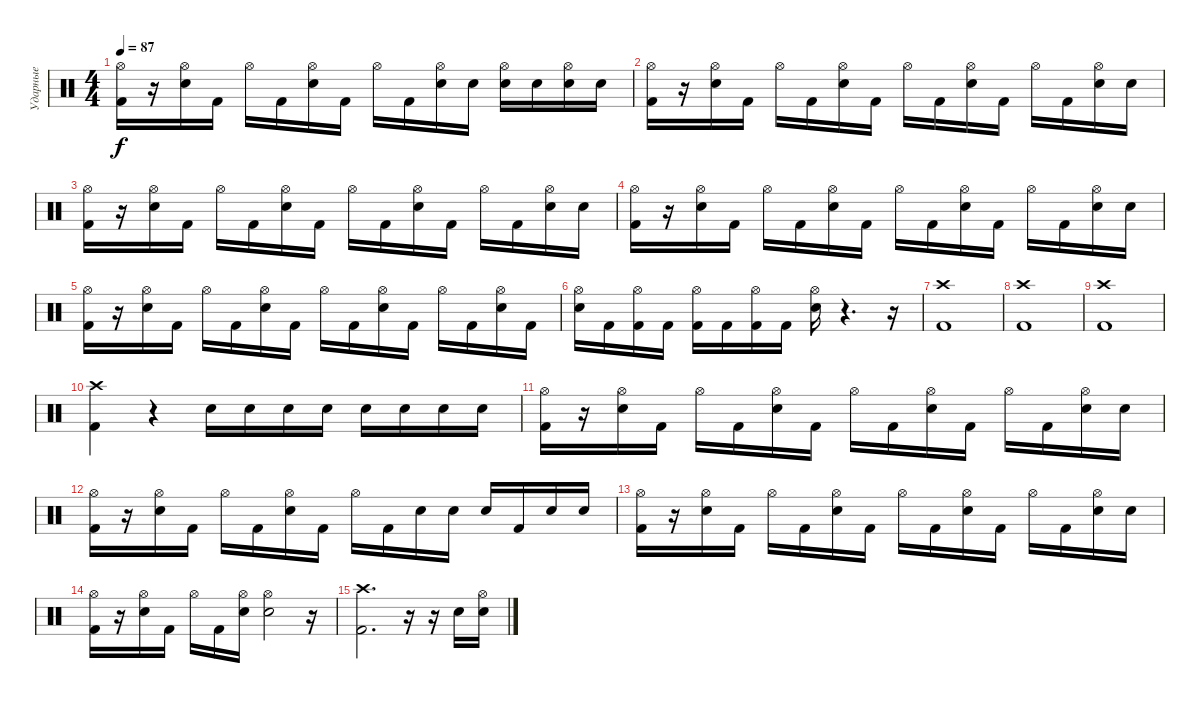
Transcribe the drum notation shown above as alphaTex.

\track ("Ударные" "Ударные") {instrument percussion}
\staff {score}
\articulation defaults
\ts (4 4)
\tempo 87
\clef neutral
\ks c
("Hi-Hat (open)" "Kick (hit) 2").16{dy f} r.16 ("Hi-Hat (open)" "Snare (hit) 2").16 "Kick (hit) 2".16 "Hi-Hat (open)".16 "Kick (hit) 2".16 ("Hi-Hat (open)" "Snare (hit) 2").16 "Kick (hit) 2".16 "Hi-Hat (open)".16 "Kick (hit) 2".16 ("Hi-Hat (open)" "Snare (hit) 2").16 "Snare (hit) 2".16 ("Hi-Hat (open)" "Snare (hit) 2").16 "Snare (hit) 2".16 ("Hi-Hat (open)" "Snare (hit) 2").16 "Snare (hit) 2".16 |
("Hi-Hat (open)" "Kick (hit) 2").16 r.16 ("Hi-Hat (open)" "Snare (hit) 2").16 "Kick (hit) 2".16 "Hi-Hat (open)".16 "Kick (hit) 2".16 ("Hi-Hat (open)" "Snare (hit) 2").16 "Kick (hit) 2".16 "Hi-Hat (open)".16 "Kick (hit) 2".16 ("Hi-Hat (open)" "Snare (hit) 2").16 "Kick (hit) 2".16 "Hi-Hat (open)".16 "Kick (hit) 2".16 ("Hi-Hat (open)" "Snare (hit) 2").16 "Snare (hit) 2".16 |
("Hi-Hat (open)" "Kick (hit) 2").16 r.16 ("Hi-Hat (open)" "Snare (hit) 2").16 "Kick (hit) 2".16 "Hi-Hat (open)".16 "Kick (hit) 2".16 ("Hi-Hat (open)" "Snare (hit) 2").16 "Kick (hit) 2".16 "Hi-Hat (open)".16 "Kick (hit) 2".16 ("Hi-Hat (open)" "Snare (hit) 2").16 "Kick (hit) 2".16 "Hi-Hat (open)".16 "Kick (hit) 2".16 ("Hi-Hat (open)" "Snare (hit) 2").16 "Snare (hit) 2".16 |
("Hi-Hat (open)" "Kick (hit) 2").16 r.16 ("Hi-Hat (open)" "Snare (hit) 2").16 "Kick (hit) 2".16 "Hi-Hat (open)".16 "Kick (hit) 2".16 ("Hi-Hat (open)" "Snare (hit) 2").16 "Kick (hit) 2".16 "Hi-Hat (open)".16 "Kick (hit) 2".16 ("Hi-Hat (open)" "Snare (hit) 2").16 "Kick (hit) 2".16 "Hi-Hat (open)".16 "Kick (hit) 2".16 ("Hi-Hat (open)" "Snare (hit) 2").16 "Snare (hit) 2".16 |
("Hi-Hat (open)" "Kick (hit) 2").16 r.16 ("Hi-Hat (open)" "Snare (hit) 2").16 "Kick (hit) 2".16 "Hi-Hat (open)".16 "Kick (hit) 2".16 ("Hi-Hat (open)" "Snare (hit) 2").16 "Kick (hit) 2".16 "Hi-Hat (open)".16 "Kick (hit) 2".16 ("Hi-Hat (open)" "Snare (hit) 2").16 "Kick (hit) 2".16 "Hi-Hat (open)".16 "Kick (hit) 2".16 ("Hi-Hat (open)" "Snare (hit) 2").16 "Kick (hit) 2".16 |
("Hi-Hat (open)" "Snare (hit) 2").16 "Kick (hit) 2".16 ("Hi-Hat (open)" "Kick (hit) 2").16 "Kick (hit) 2".16 ("Hi-Hat (open)" "Kick (hit) 2").16 "Kick (hit) 2".16 ("Hi-Hat (open)" "Kick (hit) 2").16 "Kick (hit) 2".16 ("Hi-Hat (open)" "Snare (hit) 2").16 r.4{d} r.16 |
("Crash high (hit)" "Kick (hit) 2").1 |
("Crash high (hit)" "Kick (hit) 2").1 |
("Crash high (hit)" "Kick (hit) 2").1 |
("Crash high (hit)" "Kick (hit) 2").4 r.4 "Snare (hit) 2".16 "Snare (hit) 2".16 "Snare (hit) 2".16 "Snare (hit) 2".16 "Snare (hit) 2".16 "Snare (hit) 2".16 "Snare (hit) 2".16 "Snare (hit) 2".16 |
("Hi-Hat (open)" "Kick (hit) 2").16 r.16 ("Hi-Hat (open)" "Snare (hit) 2").16 "Kick (hit) 2".16 "Hi-Hat (open)".16 "Kick (hit) 2".16 ("Hi-Hat (open)" "Snare (hit) 2").16 "Kick (hit) 2".16 "Hi-Hat (open)".16 "Kick (hit) 2".16 ("Hi-Hat (open)" "Snare (hit) 2").16 "Kick (hit) 2".16 "Hi-Hat (open)".16 "Kick (hit) 2".16 ("Hi-Hat (open)" "Snare (hit) 2").16 "Snare (hit) 2".16 |
("Hi-Hat (open)" "Kick (hit) 2").16 r.16 ("Hi-Hat (open)" "Snare (hit) 2").16 "Kick (hit) 2".16 "Hi-Hat (open)".16 "Kick (hit) 2".16 ("Hi-Hat (open)" "Snare (hit) 2").16 "Kick (hit) 2".16 "Hi-Hat (open)".16 "Kick (hit) 2".16 "Snare (hit) 2".16 "Snare (hit) 2".16 "Snare (hit) 2".16 "Kick (hit) 2".16 "Snare (hit) 2".16 "Snare (hit) 2".16 |
("Hi-Hat (open)" "Kick (hit) 2").16 r.16 ("Hi-Hat (open)" "Snare (hit) 2").16 "Kick (hit) 2".16 "Hi-Hat (open)".16 "Kick (hit) 2".16 ("Hi-Hat (open)" "Snare (hit) 2").16 "Kick (hit) 2".16 "Hi-Hat (open)".16 "Kick (hit) 2".16 ("Hi-Hat (open)" "Snare (hit) 2").16 "Kick (hit) 2".16 "Hi-Hat (open)".16 "Kick (hit) 2".16 ("Hi-Hat (open)" "Snare (hit) 2").16 "Snare (hit) 2".16 |
("Hi-Hat (open)" "Kick (hit) 2").16 r.16 ("Hi-Hat (open)" "Snare (hit) 2").16 "Kick (hit) 2".16 "Hi-Hat (open)".16 "Kick (hit) 2".16 ("Hi-Hat (open)" "Snare (hit) 2").16 ("Hi-Hat (open)" "Snare (hit) 2").2 r.16 |
("Crash high (hit)" "Kick (hit) 2").2{d} r.16 r.16 "Snare (hit) 2".16 ("Hi-Hat (open)" "Snare (hit) 2").16
